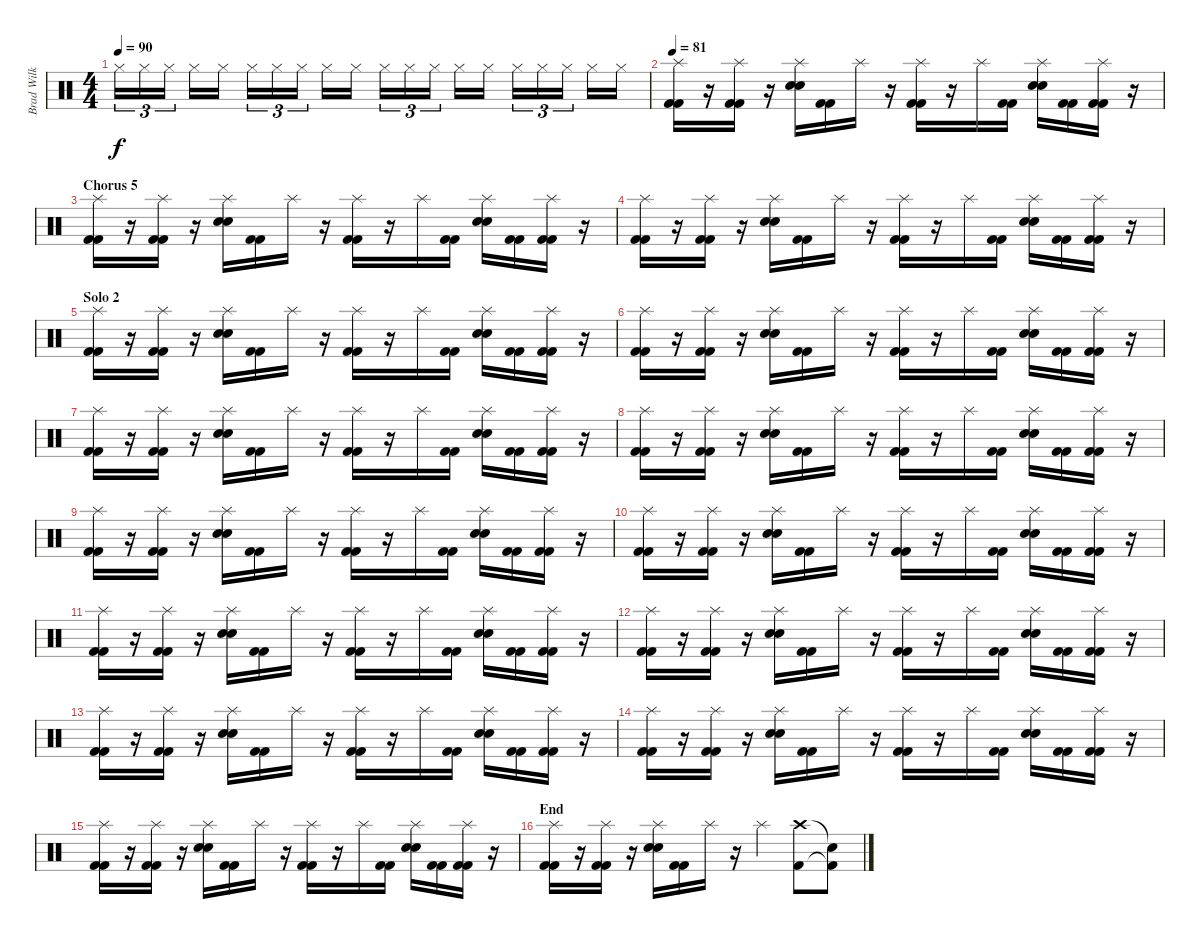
\track ("Brad Wilk" "Brad Wilk") {instrument percussion}
\staff {score}
\articulation defaults
\ts (4 4)
\tempo 90
\clef neutral
\ks c "Hi-Hat (closed)".16{tu (3 2) dy f} "Hi-Hat (closed)".16{tu (3 2)} "Hi-Hat (closed)".16{tu (3 2)} "Hi-Hat (closed)".16 "Hi-Hat (closed)".16 "Hi-Hat (closed)".16{tu (3 2)} "Hi-Hat (closed)".16{tu (3 2)} "Hi-Hat (closed)".16{tu (3 2)} "Hi-Hat (closed)".16 "Hi-Hat (closed)".16 "Hi-Hat (closed)".16{tu (3 2)} "Hi-Hat (closed)".16{tu (3 2)} "Hi-Hat (closed)".16{tu (3 2)} "Hi-Hat (closed)".16 "Hi-Hat (closed)".16 "Hi-Hat (closed)".16{tu (3 2)} "Hi-Hat (closed)".16{tu (3 2)} "Hi-Hat (closed)".16{tu (3 2)} "Hi-Hat (closed)".16 "Hi-Hat (closed)".16
|
\tempo 81
("Splash (hit)" "Kick (hit) 2" "Kick (hit) 2").16 r.16 ("Splash (hit)" "Kick (hit) 2" "Kick (hit) 2").16 r.16 ("Splash (hit)" "Electric Snare (hit)" "Electric Snare (hit)").16 ("Kick (hit) 2" "Kick (hit) 2").16 "Splash (hit)".16 r.16 ("Splash (hit)" "Kick (hit) 2" "Kick (hit) 2").16 r.16 "Splash (hit)".16 ("Kick (hit) 2" "Kick (hit) 2").16 ("Splash (hit)" "Electric Snare (hit)" "Electric Snare (hit)").16 ("Kick (hit) 2" "Kick (hit) 2").16 ("Splash (hit)" "Kick (hit) 2" "Kick (hit) 2").16 r.16 |
\section ("" "Chorus 5")
("Splash (hit)" "Kick (hit) 2" "Kick (hit) 2").16 r.16 ("Splash (hit)" "Kick (hit) 2" "Kick (hit) 2").16 r.16 ("Splash (hit)" "Electric Snare (hit)" "Electric Snare (hit)").16 ("Kick (hit) 2" "Kick (hit) 2").16 "Splash (hit)".16 r.16 ("Splash (hit)" "Kick (hit) 2" "Kick (hit) 2").16 r.16 "Splash (hit)".16 ("Kick (hit) 2" "Kick (hit) 2").16 ("Splash (hit)" "Electric Snare (hit)" "Electric Snare (hit)").16 ("Kick (hit) 2" "Kick (hit) 2").16 ("Splash (hit)" "Kick (hit) 2" "Kick (hit) 2").16 r.16 |
("Splash (hit)" "Kick (hit) 2" "Kick (hit) 2").16 r.16 ("Splash (hit)" "Kick (hit) 2" "Kick (hit) 2").16 r.16 ("Splash (hit)" "Electric Snare (hit)" "Electric Snare (hit)").16 ("Kick (hit) 2" "Kick (hit) 2").16 "Splash (hit)".16 r.16 ("Splash (hit)" "Kick (hit) 2" "Kick (hit) 2").16 r.16 "Splash (hit)".16 ("Kick (hit) 2" "Kick (hit) 2").16 ("Splash (hit)" "Electric Snare (hit)" "Electric Snare (hit)").16 ("Kick (hit) 2" "Kick (hit) 2").16 ("Splash (hit)" "Kick (hit) 2" "Kick (hit) 2").16 r.16 |
\section ("" "Solo 2")
("Splash (hit)" "Kick (hit) 2" "Kick (hit) 2").16 r.16 ("Splash (hit)" "Kick (hit) 2" "Kick (hit) 2").16 r.16 ("Splash (hit)" "Electric Snare (hit)" "Electric Snare (hit)").16 ("Kick (hit) 2" "Kick (hit) 2").16 "Splash (hit)".16 r.16 ("Splash (hit)" "Kick (hit) 2" "Kick (hit) 2").16 r.16 "Splash (hit)".16 ("Kick (hit) 2" "Kick (hit) 2").16 ("Splash (hit)" "Electric Snare (hit)" "Electric Snare (hit)").16 ("Kick (hit) 2" "Kick (hit) 2").16 ("Splash (hit)" "Kick (hit) 2" "Kick (hit) 2").16 r.16 |
("Splash (hit)" "Kick (hit) 2" "Kick (hit) 2").16 r.16 ("Splash (hit)" "Kick (hit) 2" "Kick (hit) 2").16 r.16 ("Splash (hit)" "Electric Snare (hit)" "Electric Snare (hit)").16 ("Kick (hit) 2" "Kick (hit) 2").16 "Splash (hit)".16 r.16 ("Splash (hit)" "Kick (hit) 2" "Kick (hit) 2").16 r.16 "Splash (hit)".16 ("Kick (hit) 2" "Kick (hit) 2").16 ("Splash (hit)" "Electric Snare (hit)" "Electric Snare (hit)").16 ("Kick (hit) 2" "Kick (hit) 2").16 ("Splash (hit)" "Kick (hit) 2" "Kick (hit) 2").16 r.16 |
("Splash (hit)" "Kick (hit) 2" "Kick (hit) 2").16 r.16 ("Splash (hit)" "Kick (hit) 2" "Kick (hit) 2").16 r.16 ("Splash (hit)" "Electric Snare (hit)" "Electric Snare (hit)").16 ("Kick (hit) 2" "Kick (hit) 2").16 "Splash (hit)".16 r.16 ("Splash (hit)" "Kick (hit) 2" "Kick (hit) 2").16 r.16 "Splash (hit)".16 ("Kick (hit) 2" "Kick (hit) 2").16 ("Splash (hit)" "Electric Snare (hit)" "Electric Snare (hit)").16 ("Kick (hit) 2" "Kick (hit) 2").16 ("Splash (hit)" "Kick (hit) 2" "Kick (hit) 2").16 r.16 |
("Splash (hit)" "Kick (hit) 2" "Kick (hit) 2").16 r.16 ("Splash (hit)" "Kick (hit) 2" "Kick (hit) 2").16 r.16 ("Splash (hit)" "Electric Snare (hit)" "Electric Snare (hit)").16 ("Kick (hit) 2" "Kick (hit) 2").16 "Splash (hit)".16 r.16 ("Splash (hit)" "Kick (hit) 2" "Kick (hit) 2").16 r.16 "Splash (hit)".16 ("Kick (hit) 2" "Kick (hit) 2").16 ("Splash (hit)" "Electric Snare (hit)" "Electric Snare (hit)").16 ("Kick (hit) 2" "Kick (hit) 2").16 ("Splash (hit)" "Kick (hit) 2" "Kick (hit) 2").16 r.16 |
("Splash (hit)" "Kick (hit) 2" "Kick (hit) 2").16 r.16 ("Splash (hit)" "Kick (hit) 2" "Kick (hit) 2").16 r.16 ("Splash (hit)" "Electric Snare (hit)" "Electric Snare (hit)").16 ("Kick (hit) 2" "Kick (hit) 2").16 "Splash (hit)".16 r.16 ("Splash (hit)" "Kick (hit) 2" "Kick (hit) 2").16 r.16 "Splash (hit)".16 ("Kick (hit) 2" "Kick (hit) 2").16 ("Splash (hit)" "Electric Snare (hit)" "Electric Snare (hit)").16 ("Kick (hit) 2" "Kick (hit) 2").16 ("Splash (hit)" "Kick (hit) 2" "Kick (hit) 2").16 r.16 |
("Splash (hit)" "Kick (hit) 2" "Kick (hit) 2").16 r.16 ("Splash (hit)" "Kick (hit) 2" "Kick (hit) 2").16 r.16 ("Splash (hit)" "Electric Snare (hit)" "Electric Snare (hit)").16 ("Kick (hit) 2" "Kick (hit) 2").16 "Splash (hit)".16 r.16 ("Splash (hit)" "Kick (hit) 2" "Kick (hit) 2").16 r.16 "Splash (hit)".16 ("Kick (hit) 2" "Kick (hit) 2").16 ("Splash (hit)" "Electric Snare (hit)" "Electric Snare (hit)").16 ("Kick (hit) 2" "Kick (hit) 2").16 ("Splash (hit)" "Kick (hit) 2" "Kick (hit) 2").16 r.16 |
("Splash (hit)" "Kick (hit) 2" "Kick (hit) 2").16 r.16 ("Splash (hit)" "Kick (hit) 2" "Kick (hit) 2").16 r.16 ("Splash (hit)" "Electric Snare (hit)" "Electric Snare (hit)").16 ("Kick (hit) 2" "Kick (hit) 2").16 "Splash (hit)".16 r.16 ("Splash (hit)" "Kick (hit) 2" "Kick (hit) 2").16 r.16 "Splash (hit)".16 ("Kick (hit) 2" "Kick (hit) 2").16 ("Splash (hit)" "Electric Snare (hit)" "Electric Snare (hit)").16 ("Kick (hit) 2" "Kick (hit) 2").16 ("Splash (hit)" "Kick (hit) 2" "Kick (hit) 2").16 r.16 |
("Splash (hit)" "Kick (hit) 2" "Kick (hit) 2").16 r.16 ("Splash (hit)" "Kick (hit) 2" "Kick (hit) 2").16 r.16 ("Splash (hit)" "Electric Snare (hit)" "Electric Snare (hit)").16 ("Kick (hit) 2" "Kick (hit) 2").16 "Splash (hit)".16 r.16 ("Splash (hit)" "Kick (hit) 2" "Kick (hit) 2").16 r.16 "Splash (hit)".16 ("Kick (hit) 2" "Kick (hit) 2").16 ("Splash (hit)" "Electric Snare (hit)" "Electric Snare (hit)").16 ("Kick (hit) 2" "Kick (hit) 2").16 ("Splash (hit)" "Kick (hit) 2" "Kick (hit) 2").16 r.16 |
("Splash (hit)" "Kick (hit) 2" "Kick (hit) 2").16 r.16 ("Splash (hit)" "Kick (hit) 2" "Kick (hit) 2").16 r.16 ("Splash (hit)" "Electric Snare (hit)" "Electric Snare (hit)").16 ("Kick (hit) 2" "Kick (hit) 2").16 "Splash (hit)".16 r.16 ("Splash (hit)" "Kick (hit) 2" "Kick (hit) 2").16 r.16 "Splash (hit)".16 ("Kick (hit) 2" "Kick (hit) 2").16 ("Splash (hit)" "Electric Snare (hit)" "Electric Snare (hit)").16 ("Kick (hit) 2" "Kick (hit) 2").16 ("Splash (hit)" "Kick (hit) 2" "Kick (hit) 2").16 r.16 |
("Splash (hit)" "Kick (hit) 2" "Kick (hit) 2").16 r.16 ("Splash (hit)" "Kick (hit) 2" "Kick (hit) 2").16 r.16 ("Splash (hit)" "Electric Snare (hit)" "Electric Snare (hit)").16 ("Kick (hit) 2" "Kick (hit) 2").16 "Splash (hit)".16 r.16 ("Splash (hit)" "Kick (hit) 2" "Kick (hit) 2").16 r.16 "Splash (hit)".16 ("Kick (hit) 2" "Kick (hit) 2").16 ("Splash (hit)" "Electric Snare (hit)" "Electric Snare (hit)").16 ("Kick (hit) 2" "Kick (hit) 2").16 ("Splash (hit)" "Kick (hit) 2" "Kick (hit) 2").16 r.16 |
("Splash (hit)" "Kick (hit) 2" "Kick (hit) 2").16 r.16 ("Splash (hit)" "Kick (hit) 2" "Kick (hit) 2").16 r.16 ("Splash (hit)" "Electric Snare (hit)" "Electric Snare (hit)").16 ("Kick (hit) 2" "Kick (hit) 2").16 "Splash (hit)".16 r.16 ("Splash (hit)" "Kick (hit) 2" "Kick (hit) 2").16 r.16 "Splash (hit)".16 ("Kick (hit) 2" "Kick (hit) 2").16 ("Splash (hit)" "Electric Snare (hit)" "Electric Snare (hit)").16 ("Kick (hit) 2" "Kick (hit) 2").16 ("Splash (hit)" "Kick (hit) 2" "Kick (hit) 2").16 r.16 |
\section ("" "End")
("Splash (hit)" "Kick (hit) 2" "Kick (hit) 2").16 r.16 ("Splash (hit)" "Kick (hit) 2" "Kick (hit) 2").16 r.16 ("Splash (hit)" "Electric Snare (hit)" "Electric Snare (hit)").16 ("Kick (hit) 2" "Kick (hit) 2").16 "Splash (hit)".16 r.16 "Splash (hit)".4 ("Crash high (hit)" "Kick (hit) 2").8 ("Snare (hit)"{t} "Kick (hit) 2"{t}).8
